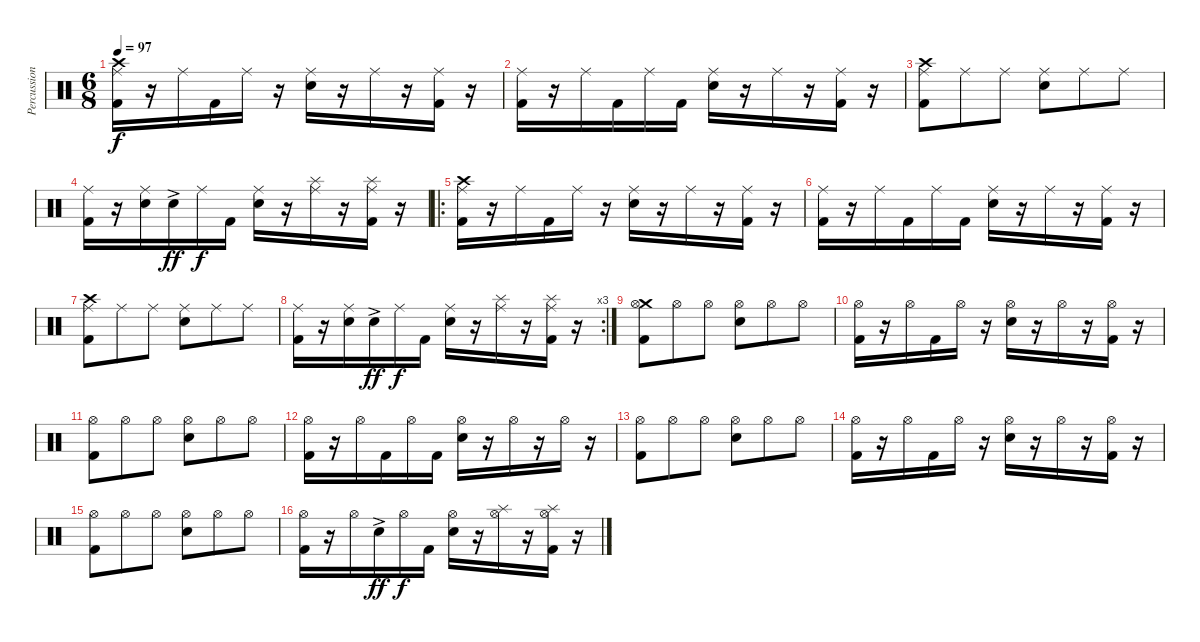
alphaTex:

\track ("Percussion" "Percussion") {instrument percussion}
\staff {score}
\articulation defaults
\ts (6 8)
\tempo 97
\clef neutral
\ks c
("Crash high (hit)" "Ride (middle)" "Kick (hit) 2").16{dy f} r.16 "Ride (middle)".16 "Kick (hit) 2".16 "Ride (middle)".16 r.16 ("Ride (middle)" "Electric Snare (hit)").16 r.16 "Ride (middle)".16 r.16 ("Ride (middle)" "Kick (hit) 2").16 r.16 |
("Ride (middle)" "Kick (hit) 2").16 r.16 "Ride (middle)".16 "Kick (hit) 2".16 "Ride (middle)".16 "Kick (hit) 2".16 ("Ride (middle)" "Electric Snare (hit)").16 r.16 "Ride (middle)".16 r.16 ("Ride (middle)" "Kick (hit) 2").16 r.16 |
("Crash high (hit)" "Ride (middle)" "Kick (hit) 2").8 "Ride (middle)".8 "Ride (middle)".8 ("Ride (middle)" "Electric Snare (hit)").8 "Ride (middle)".8 "Ride (middle)".8 |
("Ride (middle)" "Kick (hit) 2").16 r.16 ("Ride (middle)" "Electric Snare (hit)").16 "Electric Snare (hit)"{ac}.16{dy ff} "Ride (middle)".16{dy f} "Kick (hit) 2".16 ("Ride (middle)" "Electric Snare (hit)").16 r.16 ("Splash (hit)" "Ride (middle)").16 r.16 ("Splash (hit)" "Ride (middle)" "Kick (hit) 2").16 r.16 |
\ro
("Crash high (hit)" "Ride (middle)" "Kick (hit) 2").16 r.16 "Ride (middle)".16 "Kick (hit) 2".16 "Ride (middle)".16 r.16 ("Ride (middle)" "Electric Snare (hit)").16 r.16 "Ride (middle)".16 r.16 ("Ride (middle)" "Kick (hit) 2").16 r.16 |
("Ride (middle)" "Kick (hit) 2").16 r.16 "Ride (middle)".16 "Kick (hit) 2".16 "Ride (middle)".16 "Kick (hit) 2".16 ("Ride (middle)" "Electric Snare (hit)").16 r.16 "Ride (middle)".16 r.16 ("Ride (middle)" "Kick (hit) 2").16 r.16 |
("Crash high (hit)" "Ride (middle)" "Kick (hit) 2").8 "Ride (middle)".8 "Ride (middle)".8 ("Ride (middle)" "Electric Snare (hit)").8 "Ride (middle)".8 "Ride (middle)".8 |
\rc 3
("Ride (middle)" "Kick (hit) 2").16 r.16 ("Ride (middle)" "Electric Snare (hit)").16 "Electric Snare (hit)"{ac}.16{dy ff} "Ride (middle)".16{dy f} "Kick (hit) 2".16 ("Ride (middle)" "Electric Snare (hit)").16 r.16 ("Splash (hit)" "Ride (middle)").16 r.16 ("Splash (hit)" "Ride (middle)" "Kick (hit) 2").16 r.16 |
("Crash medium (hit)" "Hi-Hat (open)" "Kick (hit) 2").8 "Hi-Hat (open)".8 "Hi-Hat (open)".8 ("Hi-Hat (open)" "Electric Snare (hit)").8 "Hi-Hat (open)".8 "Hi-Hat (open)".8 |
("Hi-Hat (open)" "Kick (hit) 2").16 r.16 "Hi-Hat (open)".16 "Kick (hit) 2".16 "Hi-Hat (open)".16 r.16 ("Hi-Hat (open)" "Electric Snare (hit)").16 r.16 "Hi-Hat (open)".16 r.16 ("Hi-Hat (open)" "Kick (hit) 2").16 r.16 |
("Hi-Hat (open)" "Kick (hit) 2").8 "Hi-Hat (open)".8 "Hi-Hat (open)".8 ("Hi-Hat (open)" "Electric Snare (hit)").8 "Hi-Hat (open)".8 "Hi-Hat (open)".8 |
("Hi-Hat (open)" "Kick (hit) 2").16 r.16 "Hi-Hat (open)".16 "Kick (hit) 2".16 "Hi-Hat (open)".16 "Kick (hit) 2".16 ("Hi-Hat (open)" "Electric Snare (hit)").16 r.16 "Hi-Hat (open)".16 r.16 "Hi-Hat (open)".16 r.16 |
("Hi-Hat (open)" "Kick (hit) 2").8 "Hi-Hat (open)".8 "Hi-Hat (open)".8 ("Hi-Hat (open)" "Electric Snare (hit)").8 "Hi-Hat (open)".8 "Hi-Hat (open)".8 |
("Hi-Hat (open)" "Kick (hit) 2").16 r.16 "Hi-Hat (open)".16 "Kick (hit) 2".16 "Hi-Hat (open)".16 r.16 ("Hi-Hat (open)" "Electric Snare (hit)").16 r.16 "Hi-Hat (open)".16 r.16 ("Hi-Hat (open)" "Kick (hit) 2").16 r.16 |
("Hi-Hat (open)" "Kick (hit) 2").8 "Hi-Hat (open)".8 "Hi-Hat (open)".8 ("Hi-Hat (open)" "Electric Snare (hit)").8 "Hi-Hat (open)".8 "Hi-Hat (open)".8 |
("Hi-Hat (open)" "Kick (hit) 2").16 r.16 "Hi-Hat (open)".16 "Electric Snare (hit)"{ac}.16{dy ff} "Hi-Hat (open)".16{dy f} "Kick (hit) 2".16 ("Hi-Hat (open)" "Electric Snare (hit)").16 r.16 ("Splash (hit)" "Hi-Hat (open)").16 r.16 ("Splash (hit)" "Hi-Hat (open)" "Kick (hit) 2").16 r.16
